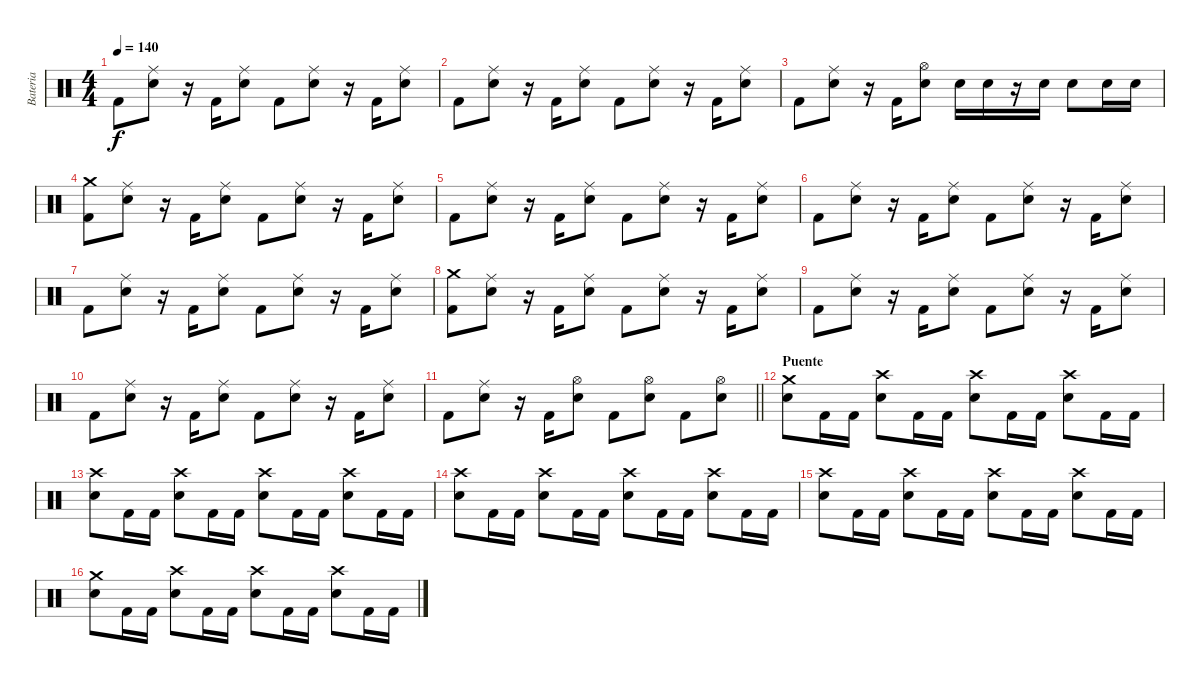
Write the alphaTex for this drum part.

\track ("Bateria" "Bateria") {instrument percussion}
\staff {score}
\articulation defaults
\ts (4 4)
\tempo 140
\clef neutral
\ks c "Kick (hit) 2".8{dy f}
("Ride (middle)" "Snare (hit) 2").8 r.16 "Kick (hit) 2".16 ("Ride (middle)" "Snare (hit) 2").8 "Kick (hit) 2".8 ("Ride (middle)" "Snare (hit) 2").8 r.16 "Kick (hit) 2".16 ("Ride (middle)" "Snare (hit) 2").8 |
"Kick (hit) 2".8 ("Ride (middle)" "Snare (hit) 2").8 r.16 "Kick (hit) 2".16 ("Ride (middle)" "Snare (hit) 2").8 "Kick (hit) 2".8 ("Ride (middle)" "Snare (hit) 2").8 r.16 "Kick (hit) 2".16 ("Ride (middle)" "Snare (hit) 2").8 |
"Kick (hit) 2".8 ("Ride (middle)" "Snare (hit) 2").8 r.16 "Kick (hit) 2".16 ("Hi-Hat (open)" "Snare (hit) 2").8 "Snare (hit) 2".16 "Snare (hit) 2".16 r.16 "Snare (hit) 2".16 "Snare (hit) 2".8 "Snare (hit) 2".16 "Snare (hit) 2".16 |
("Crash medium (hit)" "Kick (hit) 2").8 ("Ride (middle)" "Snare (hit) 2").8 r.16 "Kick (hit) 2".16 ("Ride (middle)" "Snare (hit) 2").8 "Kick (hit) 2".8 ("Ride (middle)" "Snare (hit) 2").8 r.16 "Kick (hit) 2".16 ("Ride (middle)" "Snare (hit) 2").8 |
"Kick (hit) 2".8 ("Ride (middle)" "Snare (hit) 2").8 r.16 "Kick (hit) 2".16 ("Ride (middle)" "Snare (hit) 2").8 "Kick (hit) 2".8 ("Ride (middle)" "Snare (hit) 2").8 r.16 "Kick (hit) 2".16 ("Ride (middle)" "Snare (hit) 2").8 |
"Kick (hit) 2".8 ("Ride (middle)" "Snare (hit) 2").8 r.16 "Kick (hit) 2".16 ("Ride (middle)" "Snare (hit) 2").8 "Kick (hit) 2".8 ("Ride (middle)" "Snare (hit) 2").8 r.16 "Kick (hit) 2".16 ("Ride (middle)" "Snare (hit) 2").8 |
"Kick (hit) 2".8 ("Ride (middle)" "Snare (hit) 2").8 r.16 "Kick (hit) 2".16 ("Ride (middle)" "Snare (hit) 2").8 "Kick (hit) 2".8 ("Ride (middle)" "Snare (hit) 2").8 r.16 "Kick (hit) 2".16 ("Ride (middle)" "Snare (hit) 2").8 |
("Crash medium (hit)" "Kick (hit) 2").8 ("Ride (middle)" "Snare (hit) 2").8 r.16 "Kick (hit) 2".16 ("Ride (middle)" "Snare (hit) 2").8 "Kick (hit) 2".8 ("Ride (middle)" "Snare (hit) 2").8 r.16 "Kick (hit) 2".16 ("Ride (middle)" "Snare (hit) 2").8 |
"Kick (hit) 2".8 ("Ride (middle)" "Snare (hit) 2").8 r.16 "Kick (hit) 2".16 ("Ride (middle)" "Snare (hit) 2").8 "Kick (hit) 2".8 ("Ride (middle)" "Snare (hit) 2").8 r.16 "Kick (hit) 2".16 ("Ride (middle)" "Snare (hit) 2").8 |
"Kick (hit) 2".8 ("Ride (middle)" "Snare (hit) 2").8 r.16 "Kick (hit) 2".16 ("Ride (middle)" "Snare (hit) 2").8 "Kick (hit) 2".8 ("Ride (middle)" "Snare (hit) 2").8 r.16 "Kick (hit) 2".16 ("Ride (middle)" "Snare (hit) 2").8 |
\barLineRight lightlight "Kick (hit) 2".8
("Ride (middle)" "Snare (hit) 2").8 r.16 "Kick (hit) 2".16 ("Hi-Hat (open)" "Snare (hit) 2").8 "Kick (hit) 2".8 ("Hi-Hat (open)" "Snare (hit) 2").8 "Kick (hit) 2".8 ("Hi-Hat (open)" "Snare (hit) 2").8 |
\section ("" "Puente")
("Crash medium (hit)" "Snare (hit) 2").8 "Kick (hit) 2".16 "Kick (hit) 2".16 ("Crash high (hit)" "Snare (hit) 2").8 "Kick (hit) 2".16 "Kick (hit) 2".16 ("Crash high (hit)" "Snare (hit) 2").8 "Kick (hit) 2".16 "Kick (hit) 2".16 ("Crash high (hit)" "Snare (hit) 2").8 "Kick (hit) 2".16 "Kick (hit) 2".16 |
("Crash high (hit)" "Snare (hit) 2").8 "Kick (hit) 2".16 "Kick (hit) 2".16 ("Crash high (hit)" "Snare (hit) 2").8 "Kick (hit) 2".16 "Kick (hit) 2".16 ("Crash high (hit)" "Snare (hit) 2").8 "Kick (hit) 2".16 "Kick (hit) 2".16 ("Crash high (hit)" "Snare (hit) 2").8 "Kick (hit) 2".16 "Kick (hit) 2".16 |
("Crash high (hit)" "Snare (hit) 2").8 "Kick (hit) 2".16 "Kick (hit) 2".16 ("Crash high (hit)" "Snare (hit) 2").8 "Kick (hit) 2".16 "Kick (hit) 2".16 ("Crash high (hit)" "Snare (hit) 2").8 "Kick (hit) 2".16 "Kick (hit) 2".16 ("Crash high (hit)" "Snare (hit) 2").8 "Kick (hit) 2".16 "Kick (hit) 2".16 |
("Crash high (hit)" "Snare (hit) 2").8 "Kick (hit) 2".16 "Kick (hit) 2".16 ("Crash high (hit)" "Snare (hit) 2").8 "Kick (hit) 2".16 "Kick (hit) 2".16 ("Crash high (hit)" "Snare (hit) 2").8 "Kick (hit) 2".16 "Kick (hit) 2".16 ("Crash high (hit)" "Snare (hit) 2").8 "Kick (hit) 2".16 "Kick (hit) 2".16 |
("Crash medium (hit)" "Snare (hit) 2").8 "Kick (hit) 2".16 "Kick (hit) 2".16 ("Crash high (hit)" "Snare (hit) 2").8 "Kick (hit) 2".16 "Kick (hit) 2".16 ("Crash high (hit)" "Snare (hit) 2").8 "Kick (hit) 2".16 "Kick (hit) 2".16 ("Crash high (hit)" "Snare (hit) 2").8 "Kick (hit) 2".16 "Kick (hit) 2".16
